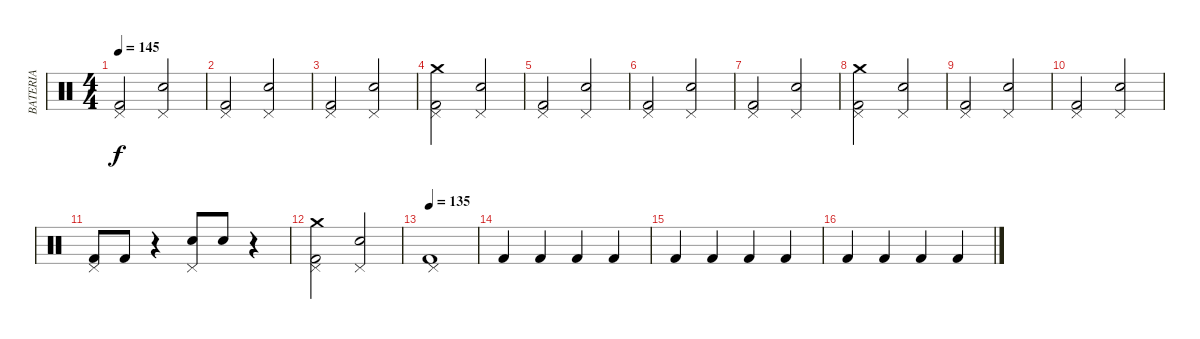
\track ("BATERIA" "BATERIA") {instrument percussion}
\staff {score}
\articulation defaults
\ts (4 4)
\tempo 145
\clef neutral
\ks c
("Pedal Hi-Hat (hit)" "Kick (hit) 2").2{dy f} ("Pedal Hi-Hat (hit)" "Snare (hit) 2").2 |
("Pedal Hi-Hat (hit)" "Kick (hit) 2").2 ("Pedal Hi-Hat (hit)" "Snare (hit) 2").2 |
("Pedal Hi-Hat (hit)" "Kick (hit) 2").2 ("Pedal Hi-Hat (hit)" "Snare (hit) 2").2 |
("Crash medium (hit)" "Pedal Hi-Hat (hit)" "Kick (hit) 2").2 ("Pedal Hi-Hat (hit)" "Snare (hit) 2").2 |
("Pedal Hi-Hat (hit)" "Kick (hit) 2").2 ("Pedal Hi-Hat (hit)" "Snare (hit) 2").2 |
("Pedal Hi-Hat (hit)" "Kick (hit) 2").2 ("Pedal Hi-Hat (hit)" "Snare (hit) 2").2 |
("Pedal Hi-Hat (hit)" "Kick (hit) 2").2 ("Pedal Hi-Hat (hit)" "Snare (hit) 2").2 |
("Crash medium (hit)" "Pedal Hi-Hat (hit)" "Kick (hit) 2").2 ("Pedal Hi-Hat (hit)" "Snare (hit) 2").2 |
("Pedal Hi-Hat (hit)" "Kick (hit) 2").2 ("Pedal Hi-Hat (hit)" "Snare (hit) 2").2 |
("Pedal Hi-Hat (hit)" "Kick (hit) 2").2 ("Pedal Hi-Hat (hit)" "Snare (hit) 2").2 |
("Pedal Hi-Hat (hit)" "Kick (hit) 2").8 "Kick (hit) 2".8 r.4 ("Pedal Hi-Hat (hit)" "Snare (hit) 2").8 "Snare (hit) 2".8 r.4 |
("Crash medium (hit)" "Pedal Hi-Hat (hit)" "Kick (hit) 2").2 ("Pedal Hi-Hat (hit)" "Snare (hit) 2").2 |
\tempo 135
("Pedal Hi-Hat (hit)" "Kick (hit) 2").1 |
"Kick (hit) 2".4 "Kick (hit) 2".4 "Kick (hit) 2".4 "Kick (hit) 2".4 |
"Kick (hit) 2".4 "Kick (hit) 2".4 "Kick (hit) 2".4 "Kick (hit) 2".4 |
"Kick (hit) 2".4 "Kick (hit) 2".4 "Kick (hit) 2".4 "Kick (hit) 2".4
